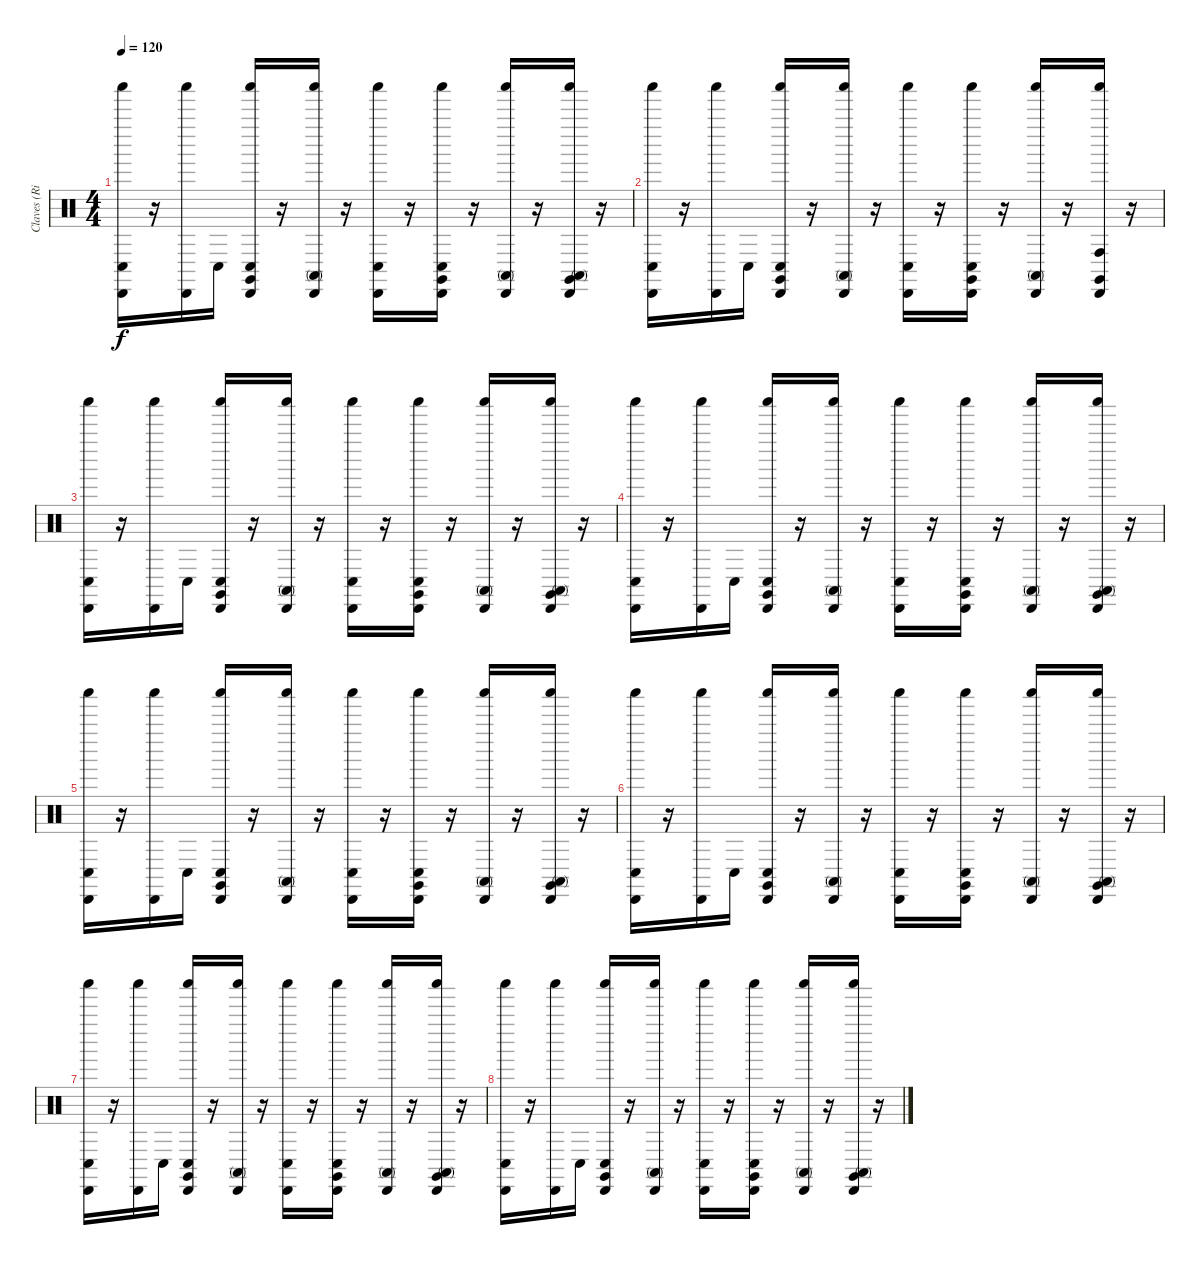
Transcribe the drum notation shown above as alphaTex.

\track ("Claves (Ringo)" "Claves (Ri") {instrument percussion}
\staff {score}
\articulation defaults
\ts (4 4)
\tempo 120
\clef neutral
\ks c
("Conga low (hit)" "Cabasa (hit)" "Shaker (hit)").16{dy f} r.16 ("Shaker (hit)" "Cabasa (hit)").16 "Conga low (hit)".16 ("Cabasa (hit)" "Shaker (hit)" "Claves (hit)" "Conga low (hit)").16 r.16 ("Shaker (hit)" "Cabasa (hit)" "Conga high (mute)").16 r.16 ("Cabasa (hit)" "Conga low (hit)" "Shaker (hit)").16 r.16 ("Cabasa (hit)" "Conga low (hit)" "Shaker (hit)" "Claves (hit)").16 r.16 ("Conga high (mute)" "Cabasa (hit)" "Shaker (hit)").16 r.16 ("Shaker (hit)" "Conga high (mute)" "Claves (hit)" "Cabasa (hit)").16 r.16 |
("Shaker (hit)" "Conga low (hit)" "Cabasa (hit)").16 r.16 ("Cabasa (hit)" "Shaker (hit)").16 "Conga low (hit)".16 ("Conga low (hit)" "Claves (hit)" "Cabasa (hit)" "Shaker (hit)").16 r.16 ("Cabasa (hit)" "Conga high (mute)" "Shaker (hit)").16 r.16 ("Shaker (hit)" "Cabasa (hit)" "Conga low (hit)").16 r.16 ("Conga low (hit)" "Shaker (hit)" "Claves (hit)" "Cabasa (hit)").16 r.16 ("Cabasa (hit)" "Shaker (hit)" "Conga high (mute)").16 r.16 ("Shaker (hit)" "Claves (hit)" "Conga high (hit)" "Cabasa (hit)").16 r.16 |
("Shaker (hit)" "Cabasa (hit)" "Conga low (hit)").16 r.16 ("Cabasa (hit)" "Shaker (hit)").16 "Conga low (hit)".16 ("Cabasa (hit)" "Conga low (hit)" "Claves (hit)" "Shaker (hit)").16 r.16 ("Shaker (hit)" "Cabasa (hit)" "Conga high (mute)").16 r.16 ("Conga low (hit)" "Cabasa (hit)" "Shaker (hit)").16 r.16 ("Conga low (hit)" "Claves (hit)" "Cabasa (hit)" "Shaker (hit)").16 r.16 ("Shaker (hit)" "Conga high (mute)" "Cabasa (hit)").16 r.16 ("Shaker (hit)" "Claves (hit)" "Cabasa (hit)" "Conga high (mute)").16 r.16 |
("Shaker (hit)" "Cabasa (hit)" "Conga low (hit)").16 r.16 ("Cabasa (hit)" "Shaker (hit)").16 "Conga low (hit)".16 ("Cabasa (hit)" "Conga low (hit)" "Claves (hit)" "Shaker (hit)").16 r.16 ("Shaker (hit)" "Cabasa (hit)" "Conga high (mute)").16 r.16 ("Conga low (hit)" "Cabasa (hit)" "Shaker (hit)").16 r.16 ("Conga low (hit)" "Claves (hit)" "Cabasa (hit)" "Shaker (hit)").16 r.16 ("Shaker (hit)" "Conga high (mute)" "Cabasa (hit)").16 r.16 ("Shaker (hit)" "Claves (hit)" "Cabasa (hit)" "Conga high (mute)").16 r.16 |
("Shaker (hit)" "Cabasa (hit)" "Conga low (hit)").16 r.16 ("Cabasa (hit)" "Shaker (hit)").16 "Conga low (hit)".16 ("Cabasa (hit)" "Conga low (hit)" "Claves (hit)" "Shaker (hit)").16 r.16 ("Shaker (hit)" "Cabasa (hit)" "Conga high (mute)").16 r.16 ("Conga low (hit)" "Cabasa (hit)" "Shaker (hit)").16 r.16 ("Conga low (hit)" "Claves (hit)" "Cabasa (hit)" "Shaker (hit)").16 r.16 ("Shaker (hit)" "Conga high (mute)" "Cabasa (hit)").16 r.16 ("Shaker (hit)" "Claves (hit)" "Cabasa (hit)" "Conga high (mute)").16 r.16 |
("Shaker (hit)" "Cabasa (hit)" "Conga low (hit)").16 r.16 ("Cabasa (hit)" "Shaker (hit)").16 "Conga low (hit)".16 ("Cabasa (hit)" "Conga low (hit)" "Claves (hit)" "Shaker (hit)").16 r.16 ("Shaker (hit)" "Cabasa (hit)" "Conga high (mute)").16 r.16 ("Conga low (hit)" "Cabasa (hit)" "Shaker (hit)").16 r.16 ("Conga low (hit)" "Claves (hit)" "Cabasa (hit)" "Shaker (hit)").16 r.16 ("Shaker (hit)" "Conga high (mute)" "Cabasa (hit)").16 r.16 ("Shaker (hit)" "Claves (hit)" "Cabasa (hit)" "Conga high (mute)").16 r.16 |
("Shaker (hit)" "Cabasa (hit)" "Conga low (hit)").16 r.16 ("Cabasa (hit)" "Shaker (hit)").16 "Conga low (hit)".16 ("Cabasa (hit)" "Conga low (hit)" "Claves (hit)" "Shaker (hit)").16 r.16 ("Shaker (hit)" "Cabasa (hit)" "Conga high (mute)").16 r.16 ("Conga low (hit)" "Cabasa (hit)" "Shaker (hit)").16 r.16 ("Conga low (hit)" "Claves (hit)" "Cabasa (hit)" "Shaker (hit)").16 r.16 ("Shaker (hit)" "Conga high (mute)" "Cabasa (hit)").16 r.16 ("Shaker (hit)" "Claves (hit)" "Cabasa (hit)" "Conga high (mute)").16 r.16 |
("Shaker (hit)" "Cabasa (hit)" "Conga low (hit)").16 r.16 ("Cabasa (hit)" "Shaker (hit)").16 "Conga low (hit)".16 ("Cabasa (hit)" "Conga low (hit)" "Claves (hit)" "Shaker (hit)").16 r.16 ("Shaker (hit)" "Cabasa (hit)" "Conga high (mute)").16 r.16 ("Conga low (hit)" "Cabasa (hit)" "Shaker (hit)").16 r.16 ("Conga low (hit)" "Claves (hit)" "Cabasa (hit)" "Shaker (hit)").16 r.16 ("Shaker (hit)" "Conga high (mute)" "Cabasa (hit)").16 r.16 ("Shaker (hit)" "Claves (hit)" "Cabasa (hit)" "Conga high (mute)").16 r.16
